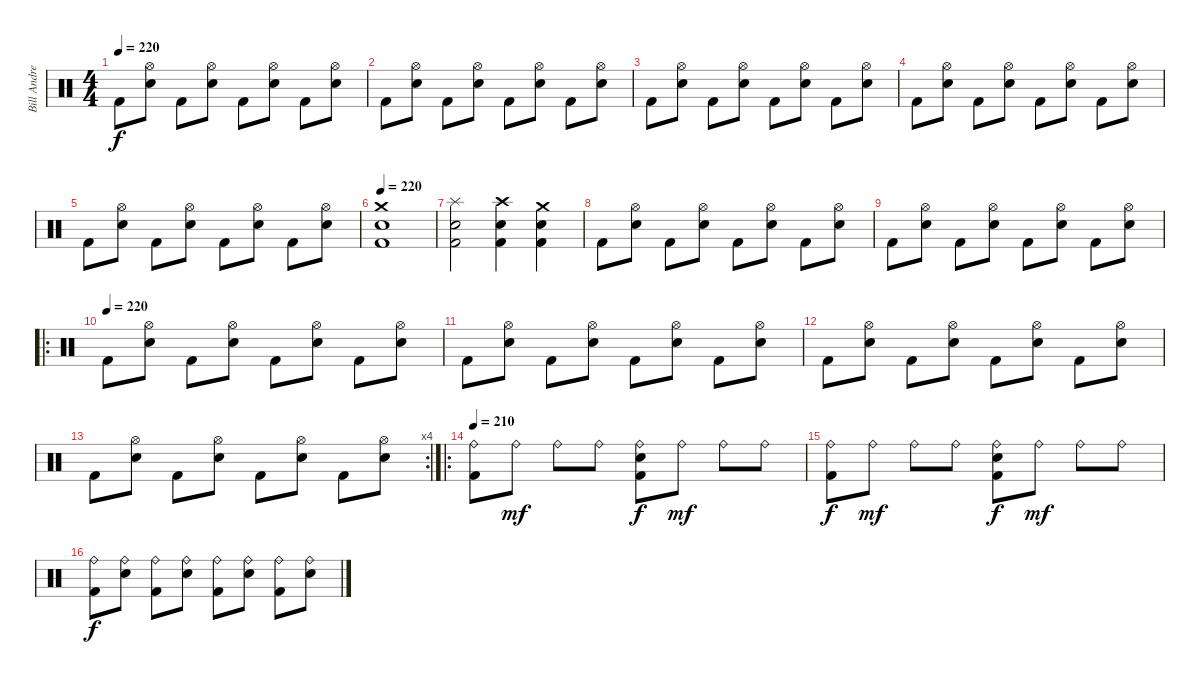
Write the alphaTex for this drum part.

\track ("Bill Andrews" "Bill Andre") {instrument percussion}
\staff {score}
\articulation defaults
\ts (4 4)
\tempo 220
\clef neutral
\ks c "Kick (hit) 2".8{dy f}
("Hi-Hat (open)" "Snare (hit) 2").8 "Kick (hit) 2".8 ("Hi-Hat (open)" "Snare (hit) 2").8 "Kick (hit) 2".8 ("Hi-Hat (open)" "Snare (hit) 2").8 "Kick (hit) 2".8 ("Hi-Hat (open)" "Snare (hit) 2").8 |
"Kick (hit) 2".8 ("Hi-Hat (open)" "Snare (hit) 2").8 "Kick (hit) 2".8 ("Hi-Hat (open)" "Snare (hit) 2").8 "Kick (hit) 2".8 ("Hi-Hat (open)" "Snare (hit) 2").8 "Kick (hit) 2".8 ("Hi-Hat (open)" "Snare (hit) 2").8 |
"Kick (hit) 2".8 ("Hi-Hat (open)" "Snare (hit) 2").8 "Kick (hit) 2".8 ("Hi-Hat (open)" "Snare (hit) 2").8 "Kick (hit) 2".8 ("Hi-Hat (open)" "Snare (hit) 2").8 "Kick (hit) 2".8 ("Hi-Hat (open)" "Snare (hit) 2").8 |
"Kick (hit) 2".8 ("Hi-Hat (open)" "Snare (hit) 2").8 "Kick (hit) 2".8 ("Hi-Hat (open)" "Snare (hit) 2").8 "Kick (hit) 2".8 ("Hi-Hat (open)" "Snare (hit) 2").8 "Kick (hit) 2".8 ("Hi-Hat (open)" "Snare (hit) 2").8 |
"Kick (hit) 2".8 ("Hi-Hat (open)" "Snare (hit) 2").8 "Kick (hit) 2".8 ("Hi-Hat (open)" "Snare (hit) 2").8 "Kick (hit) 2".8 ("Hi-Hat (open)" "Snare (hit) 2").8 "Kick (hit) 2".8 ("Hi-Hat (open)" "Snare (hit) 2").8 |
\tempo 220
("Crash medium (hit)" "Snare (hit) 2" "Kick (hit) 2").1 |
("Splash (hit)" "Snare (hit) 2" "Kick (hit) 2").2 ("Crash high (hit)" "Snare (hit) 2" "Kick (hit) 2").4 ("Crash medium (hit)" "Snare (hit) 2" "Kick (hit) 2").4 |
"Kick (hit) 2".8 ("Hi-Hat (open)" "Snare (hit) 2").8 "Kick (hit) 2".8 ("Hi-Hat (open)" "Snare (hit) 2").8 "Kick (hit) 2".8 ("Hi-Hat (open)" "Snare (hit) 2").8 "Kick (hit) 2".8 ("Hi-Hat (open)" "Snare (hit) 2").8 |
"Kick (hit) 2".8 ("Hi-Hat (open)" "Snare (hit) 2").8 "Kick (hit) 2".8 ("Hi-Hat (open)" "Snare (hit) 2").8 "Kick (hit) 2".8 ("Hi-Hat (open)" "Snare (hit) 2").8 "Kick (hit) 2".8 ("Hi-Hat (open)" "Snare (hit) 2").8 |
\ro
\tempo (220)
"Kick (hit) 2".8 ("Hi-Hat (open)" "Snare (hit) 2").8 "Kick (hit) 2".8 ("Hi-Hat (open)" "Snare (hit) 2").8 "Kick (hit) 2".8 ("Hi-Hat (open)" "Snare (hit) 2").8 "Kick (hit) 2".8 ("Hi-Hat (open)" "Snare (hit) 2").8 |
"Kick (hit) 2".8 ("Hi-Hat (open)" "Snare (hit) 2").8 "Kick (hit) 2".8 ("Hi-Hat (open)" "Snare (hit) 2").8 "Kick (hit) 2".8 ("Hi-Hat (open)" "Snare (hit) 2").8 "Kick (hit) 2".8 ("Hi-Hat (open)" "Snare (hit) 2").8 |
"Kick (hit) 2".8 ("Hi-Hat (open)" "Snare (hit) 2").8 "Kick (hit) 2".8 ("Hi-Hat (open)" "Snare (hit) 2").8 "Kick (hit) 2".8 ("Hi-Hat (open)" "Snare (hit) 2").8 "Kick (hit) 2".8 ("Hi-Hat (open)" "Snare (hit) 2").8 |
\rc 4 "Kick (hit) 2".8
("Hi-Hat (open)" "Snare (hit) 2").8 "Kick (hit) 2".8 ("Hi-Hat (open)" "Snare (hit) 2").8 "Kick (hit) 2".8 ("Hi-Hat (open)" "Snare (hit) 2").8 "Kick (hit) 2".8 ("Hi-Hat (open)" "Snare (hit) 2").8 |
\ro
\tempo 210
("Ride (bell)" "Kick (hit) 2").8 "Ride (bell)".8{dy mf} "Ride (bell)".8 "Ride (bell)".8 ("Ride (bell)" "Snare (hit) 2" "Kick (hit) 2").8{dy f} "Ride (bell)".8{dy mf} "Ride (bell)".8 "Ride (bell)".8 |
("Ride (bell)" "Kick (hit) 2").8{dy f} "Ride (bell)".8{dy mf} "Ride (bell)".8 "Ride (bell)".8 ("Ride (bell)" "Snare (hit) 2" "Kick (hit) 2").8{dy f} "Ride (bell)".8{dy mf} "Ride (bell)".8 "Ride (bell)".8 |
("Ride (bell)" "Kick (hit) 2").8{dy f} ("Ride (bell)" "Snare (hit) 2").8 ("Ride (bell)" "Kick (hit) 2").8 ("Ride (bell)" "Snare (hit) 2").8 ("Ride (bell)" "Kick (hit) 2").8 ("Ride (bell)" "Snare (hit) 2").8 ("Ride (bell)" "Kick (hit) 2").8 ("Ride (bell)" "Snare (hit) 2").8
